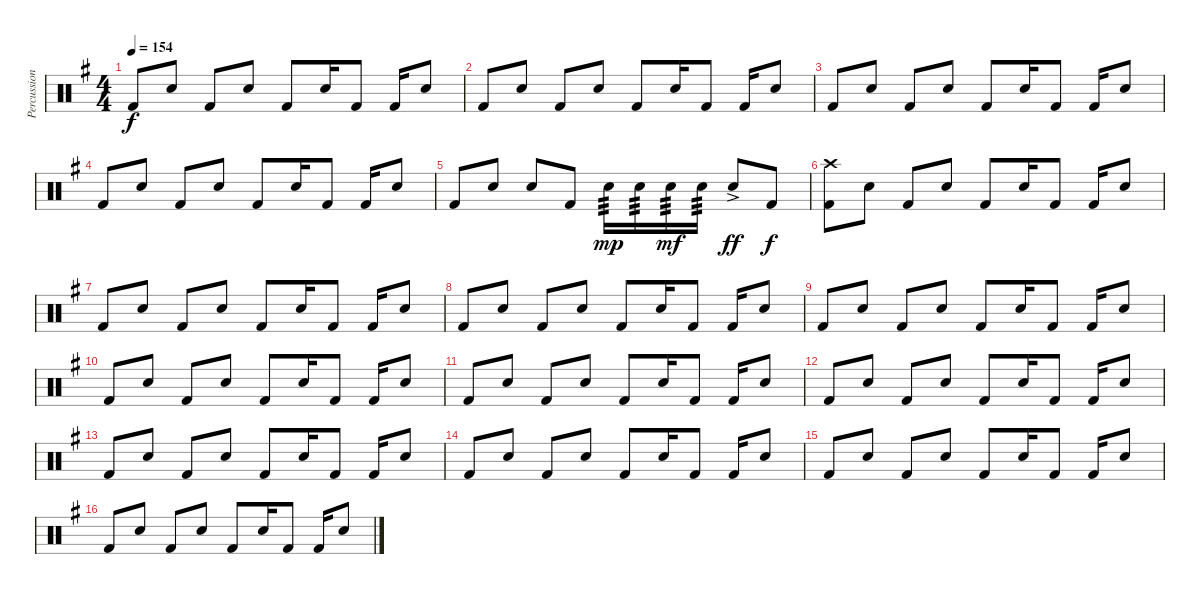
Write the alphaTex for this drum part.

\track ("Percussion" "Percussion") {instrument percussion}
\staff {score}
\articulation defaults
\ts (4 4)
\tempo 154
\clef neutral
\ks eminor "Kick (hit) 2".8{dy f} "Electric Snare (hit)".8 "Kick (hit) 2".8 "Electric Snare (hit)".8 "Kick (hit) 2".8 "Electric Snare (hit)".16 "Kick (hit) 2".8 "Kick (hit) 2".16 "Electric Snare (hit)".8
|
"Kick (hit) 2".8 "Electric Snare (hit)".8 "Kick (hit) 2".8 "Electric Snare (hit)".8 "Kick (hit) 2".8 "Electric Snare (hit)".16 "Kick (hit) 2".8 "Kick (hit) 2".16 "Electric Snare (hit)".8 |
"Kick (hit) 2".8 "Electric Snare (hit)".8 "Kick (hit) 2".8 "Electric Snare (hit)".8 "Kick (hit) 2".8 "Electric Snare (hit)".16 "Kick (hit) 2".8 "Kick (hit) 2".16 "Electric Snare (hit)".8 |
"Kick (hit) 2".8 "Electric Snare (hit)".8 "Kick (hit) 2".8 "Electric Snare (hit)".8 "Kick (hit) 2".8 "Electric Snare (hit)".16 "Kick (hit) 2".8 "Kick (hit) 2".16 "Electric Snare (hit)".8 |
"Kick (hit) 2".8 "Electric Snare (hit)".8 "Electric Snare (hit)".8 "Kick (hit) 2".8 "Electric Snare (hit)".16{tp 3 dy mp} "Electric Snare (hit)".16{tp 3} "Electric Snare (hit)".16{tp 3 dy mf} "Electric Snare (hit)".16{tp 3} "Electric Snare (hit)"{ac}.8{dy ff} "Kick (hit) 2".8{dy f} |
("Kick (hit) 2" "Crash high (hit)").8 "Electric Snare (hit)".8 "Kick (hit) 2".8 "Electric Snare (hit)".8 "Kick (hit) 2".8 "Electric Snare (hit)".16 "Kick (hit) 2".8 "Kick (hit) 2".16 "Electric Snare (hit)".8 |
"Kick (hit) 2".8 "Electric Snare (hit)".8 "Kick (hit) 2".8 "Electric Snare (hit)".8 "Kick (hit) 2".8 "Electric Snare (hit)".16 "Kick (hit) 2".8 "Kick (hit) 2".16 "Electric Snare (hit)".8 |
"Kick (hit) 2".8 "Electric Snare (hit)".8 "Kick (hit) 2".8 "Electric Snare (hit)".8 "Kick (hit) 2".8 "Electric Snare (hit)".16 "Kick (hit) 2".8 "Kick (hit) 2".16 "Electric Snare (hit)".8 |
"Kick (hit) 2".8 "Electric Snare (hit)".8 "Kick (hit) 2".8 "Electric Snare (hit)".8 "Kick (hit) 2".8 "Electric Snare (hit)".16 "Kick (hit) 2".8 "Kick (hit) 2".16 "Electric Snare (hit)".8 |
"Kick (hit) 2".8 "Electric Snare (hit)".8 "Kick (hit) 2".8 "Electric Snare (hit)".8 "Kick (hit) 2".8 "Electric Snare (hit)".16 "Kick (hit) 2".8 "Kick (hit) 2".16 "Electric Snare (hit)".8 |
"Kick (hit) 2".8 "Electric Snare (hit)".8 "Kick (hit) 2".8 "Electric Snare (hit)".8 "Kick (hit) 2".8 "Electric Snare (hit)".16 "Kick (hit) 2".8 "Kick (hit) 2".16 "Electric Snare (hit)".8 |
"Kick (hit) 2".8 "Electric Snare (hit)".8 "Kick (hit) 2".8 "Electric Snare (hit)".8 "Kick (hit) 2".8 "Electric Snare (hit)".16 "Kick (hit) 2".8 "Kick (hit) 2".16 "Electric Snare (hit)".8 |
"Kick (hit) 2".8 "Electric Snare (hit)".8 "Kick (hit) 2".8 "Electric Snare (hit)".8 "Kick (hit) 2".8 "Electric Snare (hit)".16 "Kick (hit) 2".8 "Kick (hit) 2".16 "Electric Snare (hit)".8 |
"Kick (hit) 2".8 "Electric Snare (hit)".8 "Kick (hit) 2".8 "Electric Snare (hit)".8 "Kick (hit) 2".8 "Electric Snare (hit)".16 "Kick (hit) 2".8 "Kick (hit) 2".16 "Electric Snare (hit)".8 |
"Kick (hit) 2".8 "Electric Snare (hit)".8 "Kick (hit) 2".8 "Electric Snare (hit)".8 "Kick (hit) 2".8 "Electric Snare (hit)".16 "Kick (hit) 2".8 "Kick (hit) 2".16 "Electric Snare (hit)".8 |
"Kick (hit) 2".8 "Electric Snare (hit)".8 "Kick (hit) 2".8 "Electric Snare (hit)".8 "Kick (hit) 2".8 "Electric Snare (hit)".16 "Kick (hit) 2".8 "Kick (hit) 2".16 "Electric Snare (hit)".8
